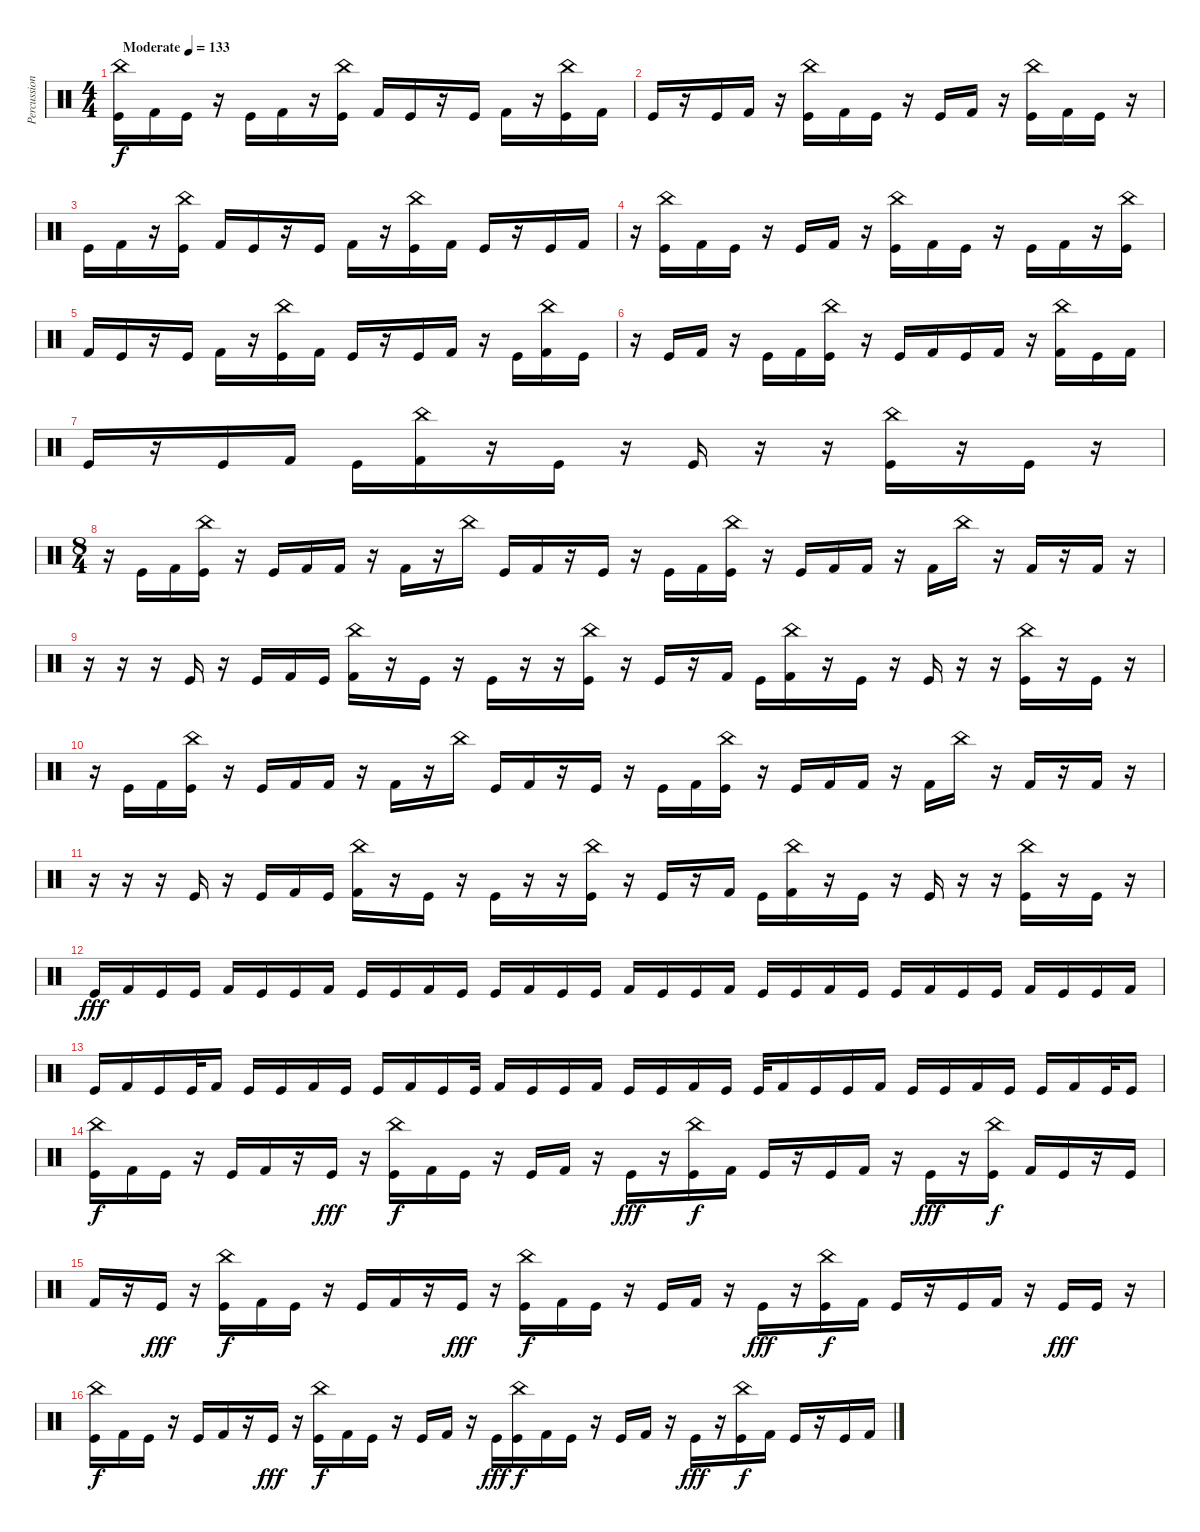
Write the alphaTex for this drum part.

\track ("Percussion" "Percussion") {instrument percussion}
\staff {score}
\articulation defaults
\ts (4 4)
\tempo (133 "Moderate")
\clef neutral
\ks c
("China (hit)" "Kick (hit)").16{dy f} "Kick (hit) 2".16 "Kick (hit)".16 r.16 "Kick (hit)".16 "Kick (hit) 2".16 r.16 ("China (hit)" "Kick (hit)").16 "Kick (hit) 2".16 "Kick (hit)".16 r.16 "Kick (hit)".16 "Kick (hit) 2".16 r.16 ("China (hit)" "Kick (hit)").16 "Kick (hit) 2".16 |
"Kick (hit)".16 r.16 "Kick (hit)".16 "Kick (hit) 2".16 r.16 ("China (hit)" "Kick (hit)").16 "Kick (hit) 2".16 "Kick (hit)".16 r.16 "Kick (hit)".16 "Kick (hit) 2".16 r.16 ("China (hit)" "Kick (hit)").16 "Kick (hit) 2".16 "Kick (hit)".16 r.16 |
"Kick (hit)".16 "Kick (hit) 2".16 r.16 ("China (hit)" "Kick (hit)").16 "Kick (hit) 2".16 "Kick (hit)".16 r.16 "Kick (hit)".16 "Kick (hit) 2".16 r.16 ("China (hit)" "Kick (hit)").16 "Kick (hit) 2".16 "Kick (hit)".16 r.16 "Kick (hit)".16 "Kick (hit) 2".16 |
r.16 ("China (hit)" "Kick (hit)").16 "Kick (hit) 2".16 "Kick (hit)".16 r.16 "Kick (hit)".16 "Kick (hit) 2".16 r.16 ("China (hit)" "Kick (hit)").16 "Kick (hit) 2".16 "Kick (hit)".16 r.16 "Kick (hit)".16 "Kick (hit) 2".16 r.16 ("China (hit)" "Kick (hit)").16 |
"Kick (hit) 2".16 "Kick (hit)".16 r.16 "Kick (hit)".16 "Kick (hit) 2".16 r.16 ("China (hit)" "Kick (hit)").16 "Kick (hit) 2".16 "Kick (hit)".16 r.16 "Kick (hit)".16 "Kick (hit) 2".16 r.16 "Kick (hit)".16 ("China (hit)" "Kick (hit) 2").16 "Kick (hit)".16 |
r.16 "Kick (hit)".16 "Kick (hit) 2".16 r.16 "Kick (hit)".16 "Kick (hit) 2".16 ("China (hit)" "Kick (hit)").16 r.16 "Kick (hit)".16 "Kick (hit) 2".16 "Kick (hit)".16 "Kick (hit) 2".16 r.16 ("China (hit)" "Kick (hit) 2").16 "Kick (hit)".16 "Kick (hit) 2".16 |
"Kick (hit)".16 r.16 "Kick (hit)".16 "Kick (hit) 2".16 "Kick (hit)".16 ("China (hit)" "Kick (hit) 2").16 r.16 "Kick (hit)".16 r.16 "Kick (hit)".16 r.16 r.16 ("China (hit)" "Kick (hit)").16 r.16 "Kick (hit)".16 r.16 |
\ts (8 4)
r.16 "Kick (hit)".16 "Kick (hit) 2".16 ("China (hit)" "Kick (hit)").16 r.16 "Kick (hit)".16 "Kick (hit) 2".16 "Kick (hit) 2".16 r.16 "Kick (hit) 2".16 r.16 "China (hit)".16 "Kick (hit)".16 "Kick (hit) 2".16 r.16 "Kick (hit)".16 r.16 "Kick (hit)".16 "Kick (hit) 2".16 ("China (hit)" "Kick (hit)").16 r.16 "Kick (hit)".16 "Kick (hit) 2".16 "Kick (hit) 2".16 r.16 "Kick (hit) 2".16 "China (hit)".16 r.16 "Kick (hit) 2".16 r.16 "Kick (hit) 2".16 r.16 |
r.16 r.16 r.16 "Kick (hit)".16 r.16 "Kick (hit)".16 "Kick (hit) 2".16 "Kick (hit)".16 ("China (hit)" "Kick (hit) 2").16 r.16 "Kick (hit)".16 r.16 "Kick (hit)".16 r.16 r.16 ("China (hit)" "Kick (hit)").16 r.16 "Kick (hit)".16 r.16 "Kick (hit) 2".16 "Kick (hit)".16 ("China (hit)" "Kick (hit) 2").16 r.16 "Kick (hit)".16 r.16 "Kick (hit)".16 r.16 r.16 ("China (hit)" "Kick (hit)").16 r.16 "Kick (hit)".16 r.16 |
r.16 "Kick (hit)".16 "Kick (hit) 2".16 ("China (hit)" "Kick (hit)").16 r.16 "Kick (hit)".16 "Kick (hit) 2".16 "Kick (hit) 2".16 r.16 "Kick (hit) 2".16 r.16 "China (hit)".16 "Kick (hit)".16 "Kick (hit) 2".16 r.16 "Kick (hit)".16 r.16 "Kick (hit)".16 "Kick (hit) 2".16 ("China (hit)" "Kick (hit)").16 r.16 "Kick (hit)".16 "Kick (hit) 2".16 "Kick (hit) 2".16 r.16 "Kick (hit) 2".16 "China (hit)".16 r.16 "Kick (hit) 2".16 r.16 "Kick (hit) 2".16 r.16 |
r.16 r.16 r.16 "Kick (hit)".16 r.16 "Kick (hit)".16 "Kick (hit) 2".16 "Kick (hit)".16 ("China (hit)" "Kick (hit) 2").16 r.16 "Kick (hit)".16 r.16 "Kick (hit)".16 r.16 r.16 ("China (hit)" "Kick (hit)").16 r.16 "Kick (hit)".16 r.16 "Kick (hit) 2".16 "Kick (hit)".16 ("China (hit)" "Kick (hit) 2").16 r.16 "Kick (hit)".16 r.16 "Kick (hit)".16 r.16 r.16 ("China (hit)" "Kick (hit)").16 r.16 "Kick (hit)".16 r.16 |
"Kick (hit)".16{dy fff} "Kick (hit) 2".16 "Kick (hit)".16 "Kick (hit)".16 "Kick (hit) 2".16 "Kick (hit)".16 "Kick (hit)".16 "Kick (hit) 2".16 "Kick (hit)".16 "Kick (hit)".16 "Kick (hit) 2".16 "Kick (hit)".16 "Kick (hit)".16 "Kick (hit) 2".16 "Kick (hit)".16 "Kick (hit)".16 "Kick (hit) 2".16 "Kick (hit)".16 "Kick (hit)".16 "Kick (hit) 2".16 "Kick (hit)".16 "Kick (hit)".16 "Kick (hit) 2".16 "Kick (hit)".16 "Kick (hit)".16 "Kick (hit) 2".16 "Kick (hit)".16 "Kick (hit)".16 "Kick (hit) 2".16 "Kick (hit)".16 "Kick (hit)".16 "Kick (hit) 2".16 |
"Kick (hit)".16 "Kick (hit) 2".16 "Kick (hit)".16 "Kick (hit)".32 "Kick (hit) 2".16 "Kick (hit)".16 "Kick (hit)".16 "Kick (hit) 2".16 "Kick (hit)".16 "Kick (hit)".16 "Kick (hit) 2".16 "Kick (hit)".16 "Kick (hit)".32 "Kick (hit) 2".16 "Kick (hit)".16 "Kick (hit)".16 "Kick (hit) 2".16 "Kick (hit)".16 "Kick (hit)".16 "Kick (hit) 2".16 "Kick (hit)".16 "Kick (hit)".32 "Kick (hit) 2".16 "Kick (hit)".16 "Kick (hit)".16 "Kick (hit) 2".16 "Kick (hit)".16 "Kick (hit)".16 "Kick (hit) 2".16 "Kick (hit)".16 "Kick (hit)".16 "Kick (hit) 2".16 "Kick (hit)".32 "Kick (hit)".16 |
("China (hit)" "Kick (hit)").16{dy f} "Kick (hit) 2".16 "Kick (hit)".16 r.16 "Kick (hit)".16 "Kick (hit) 2".16 r.16 "Kick (hit)".16{dy fff} r.16 ("China (hit)" "Kick (hit)").16{dy f} "Kick (hit) 2".16 "Kick (hit)".16 r.16 "Kick (hit)".16 "Kick (hit) 2".16 r.16 "Kick (hit)".16{dy fff} r.16 ("China (hit)" "Kick (hit)").16{dy f} "Kick (hit) 2".16 "Kick (hit)".16 r.16 "Kick (hit)".16 "Kick (hit) 2".16 r.16 "Kick (hit)".16{dy fff} r.16 ("China (hit)" "Kick (hit)").16{dy f} "Kick (hit) 2".16 "Kick (hit)".16 r.16 "Kick (hit)".16 |
"Kick (hit) 2".16 r.16 "Kick (hit)".16{dy fff} r.16 ("China (hit)" "Kick (hit)").16{dy f} "Kick (hit) 2".16 "Kick (hit)".16 r.16 "Kick (hit)".16 "Kick (hit) 2".16 r.16 "Kick (hit)".16{dy fff} r.16 ("China (hit)" "Kick (hit)").16{dy f} "Kick (hit) 2".16 "Kick (hit)".16 r.16 "Kick (hit)".16 "Kick (hit) 2".16 r.16 "Kick (hit)".16{dy fff} r.16 ("China (hit)" "Kick (hit)").16{dy f} "Kick (hit) 2".16 "Kick (hit)".16 r.16 "Kick (hit)".16 "Kick (hit) 2".16 r.16 "Kick (hit)".16{dy fff} "Kick (hit)".16 r.16 |
("China (hit)" "Kick (hit)").16{dy f} "Kick (hit) 2".16 "Kick (hit)".16 r.16 "Kick (hit)".16 "Kick (hit) 2".16 r.16 "Kick (hit)".16{dy fff} r.16 ("China (hit)" "Kick (hit)").16{dy f} "Kick (hit) 2".16 "Kick (hit)".16 r.16 "Kick (hit)".16 "Kick (hit) 2".16 r.16 "Kick (hit)".16{dy fff} ("China (hit)" "Kick (hit)").16{dy f} "Kick (hit) 2".16 "Kick (hit)".16 r.16 "Kick (hit)".16 "Kick (hit) 2".16 r.16 "Kick (hit)".16{dy fff} r.16 ("China (hit)" "Kick (hit)").16{dy f} "Kick (hit) 2".16 "Kick (hit)".16 r.16 "Kick (hit)".16 "Kick (hit) 2".16
